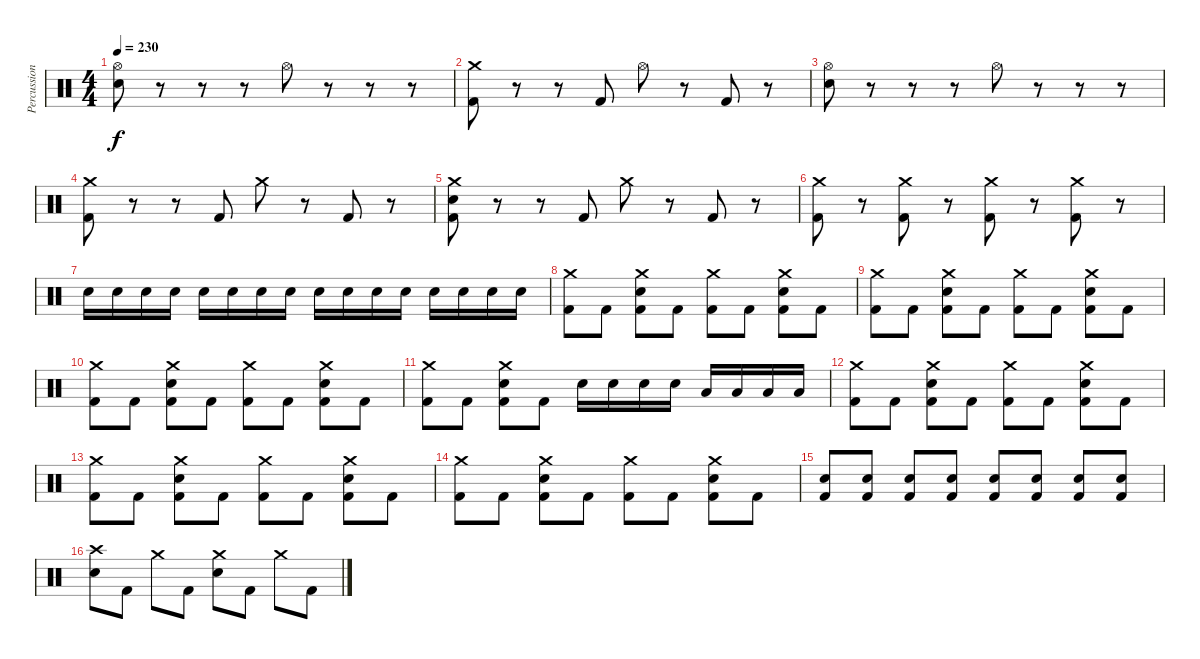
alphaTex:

\track ("Percussions" "Percussion") {instrument percussion}
\staff {score}
\articulation defaults
\ts (4 4)
\tempo 230
\clef neutral
\ks c
("Electric Snare (hit)" "Hi-Hat (open)").8{dy f} r.8 r.8 r.8 "Hi-Hat (open)".8 r.8 r.8 r.8 |
("Kick (hit) 2" "Crash medium (hit)").8 r.8 r.8 "Kick (hit) 2".8 "Hi-Hat (open)".8 r.8 "Kick (hit) 2".8 r.8 |
("Electric Snare (hit)" "Hi-Hat (open)").8 r.8 r.8 r.8 "Hi-Hat (open)".8 r.8 r.8 r.8 |
("Kick (hit) 2" "Crash medium (hit)").8 r.8 r.8 "Kick (hit) 2".8 "Crash medium (hit)".8 r.8 "Kick (hit) 2".8 r.8 |
("Kick (hit) 2" "Electric Snare (hit)" "Crash medium (hit)").8 r.8 r.8 "Kick (hit) 2".8 "Crash medium (hit)".8 r.8 "Kick (hit) 2".8 r.8 |
("Kick (hit) 2" "Crash medium (hit)").8 r.8 ("Kick (hit) 2" "Crash medium (hit)").8 r.8 ("Kick (hit) 2" "Crash medium (hit)").8 r.8 ("Kick (hit) 2" "Crash medium (hit)").8 r.8 |
"Electric Snare (hit)".16 "Electric Snare (hit)".16 "Electric Snare (hit)".16 "Electric Snare (hit)".16 "Electric Snare (hit)".16 "Electric Snare (hit)".16 "Electric Snare (hit)".16 "Electric Snare (hit)".16 "Electric Snare (hit)".16 "Electric Snare (hit)".16 "Electric Snare (hit)".16 "Electric Snare (hit)".16 "Electric Snare (hit)".16 "Electric Snare (hit)".16 "Electric Snare (hit)".16 "Electric Snare (hit)".16 |
("Kick (hit) 2" "Crash medium (hit)").8 "Kick (hit) 2".8 ("Kick (hit) 2" "Electric Snare (hit)" "Crash medium (hit)").8 "Kick (hit) 2".8 ("Kick (hit) 2" "Crash medium (hit)").8 "Kick (hit) 2".8 ("Kick (hit) 2" "Electric Snare (hit)" "Crash medium (hit)").8 "Kick (hit) 2".8 |
("Kick (hit) 2" "Crash medium (hit)").8 "Kick (hit) 2".8 ("Kick (hit) 2" "Electric Snare (hit)" "Crash medium (hit)").8 "Kick (hit) 2".8 ("Kick (hit) 2" "Crash medium (hit)").8 "Kick (hit) 2".8 ("Kick (hit) 2" "Electric Snare (hit)" "Crash medium (hit)").8 "Kick (hit) 2".8 |
("Kick (hit) 2" "Crash medium (hit)").8 "Kick (hit) 2".8 ("Kick (hit) 2" "Electric Snare (hit)" "Crash medium (hit)").8 "Kick (hit) 2".8 ("Kick (hit) 2" "Crash medium (hit)").8 "Kick (hit) 2".8 ("Kick (hit) 2" "Electric Snare (hit)" "Crash medium (hit)").8 "Kick (hit) 2".8 |
("Kick (hit) 2" "Crash medium (hit)").8 "Kick (hit) 2".8 ("Kick (hit) 2" "Electric Snare (hit)" "Crash medium (hit)").8 "Kick (hit) 2".8 "Electric Snare (hit)".16 "Electric Snare (hit)".16 "Electric Snare (hit)".16 "Electric Snare (hit)".16 "Low Tom (hit)".16 "Low Tom (hit)".16 "Low Tom (hit)".16 "Low Tom (hit)".16 |
("Kick (hit) 2" "Crash medium (hit)").8 "Kick (hit) 2".8 ("Kick (hit) 2" "Electric Snare (hit)" "Crash medium (hit)").8 "Kick (hit) 2".8 ("Kick (hit) 2" "Crash medium (hit)").8 "Kick (hit) 2".8 ("Kick (hit) 2" "Electric Snare (hit)" "Crash medium (hit)").8 "Kick (hit) 2".8 |
("Kick (hit) 2" "Crash medium (hit)").8 "Kick (hit) 2".8 ("Kick (hit) 2" "Electric Snare (hit)" "Crash medium (hit)").8 "Kick (hit) 2".8 ("Kick (hit) 2" "Crash medium (hit)").8 "Kick (hit) 2".8 ("Kick (hit) 2" "Electric Snare (hit)" "Crash medium (hit)").8 "Kick (hit) 2".8 |
("Kick (hit) 2" "Crash medium (hit)").8 "Kick (hit) 2".8 ("Kick (hit) 2" "Electric Snare (hit)" "Crash medium (hit)").8 "Kick (hit) 2".8 ("Kick (hit) 2" "Crash medium (hit)").8 "Kick (hit) 2".8 ("Kick (hit) 2" "Electric Snare (hit)" "Crash medium (hit)").8 "Kick (hit) 2".8 |
("Kick (hit) 2" "Electric Snare (hit)").8 ("Kick (hit) 2" "Electric Snare (hit)").8 ("Kick (hit) 2" "Electric Snare (hit)").8 ("Kick (hit) 2" "Electric Snare (hit)").8 ("Kick (hit) 2" "Electric Snare (hit)").8 ("Kick (hit) 2" "Electric Snare (hit)").8 ("Kick (hit) 2" "Electric Snare (hit)").8 ("Kick (hit) 2" "Electric Snare (hit)").8 |
("Electric Snare (hit)" "Crash high (hit)").8 "Kick (hit) 2".8 "Crash medium (hit)".8 "Kick (hit) 2".8 ("Electric Snare (hit)" "Crash medium (hit)").8 "Kick (hit) 2".8 "Crash medium (hit)".8 "Kick (hit) 2".8
